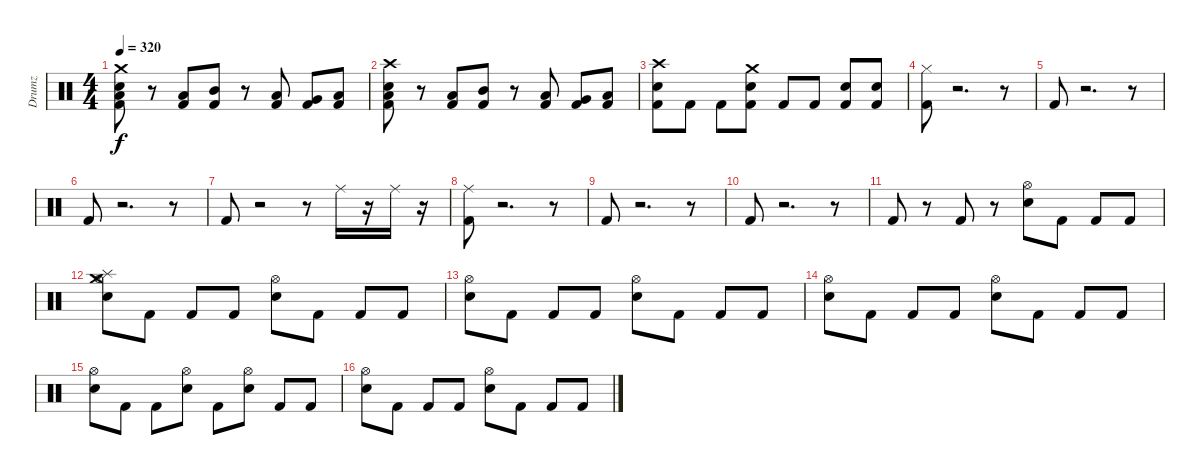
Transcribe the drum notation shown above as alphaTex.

\track ("Drumz" "Drumz") {instrument percussion}
\staff {score}
\articulation defaults
\ts (4 4)
\tempo 320
\clef neutral
\ks c
("Crash medium (hit)" "Snare (hit) 2" "Kick (hit) 2" "Low Tom (hit)").8{dy f} r.8 ("Kick (hit) 2" "Low Tom (hit)").8 ("Kick (hit) 2" "Mid Tom (hit)").8 r.8 ("Kick (hit) 2" "Low Tom (hit)").8 ("Kick (hit) 2" "Very Low Tom (hit)").8 ("Low Floor Tom (hit)" "Kick (hit) 2").8 |
("Crash high (hit)" "Snare (hit) 2" "Kick (hit) 2" "Low Tom (hit)").8 r.8 ("Kick (hit) 2" "Low Tom (hit)").8 ("Kick (hit) 2" "Mid Tom (hit)").8 r.8 ("Kick (hit) 2" "Low Tom (hit)").8 ("Kick (hit) 2" "Very Low Tom (hit)").8 ("Low Floor Tom (hit)" "Kick (hit) 2").8 |
("Crash high (hit)" "Snare (hit) 2" "Kick (hit) 2").8 "Kick (hit) 2".8 "Kick (hit) 2".8 ("Crash medium (hit)" "Snare (hit) 2" "Kick (hit) 2").8 "Kick (hit) 2".8 "Kick (hit) 2".8 ("Snare (hit) 2" "Kick (hit) 2").8 ("Snare (hit) 2" "Kick (hit) 2").8 |
("Kick (hit) 2" "Hi-Hat (closed)").8 r.2{d} r.8 |
"Kick (hit) 2".8 r.2{d} r.8 |
"Kick (hit) 2".8 r.2{d} r.8 |
"Kick (hit) 2".8 r.2 r.8 "Ride (middle)".16 r.16 "Ride (middle)".16 r.16 |
("Kick (hit) 2" "Ride (middle)").8 r.2{d} r.8 |
"Kick (hit) 2".8 r.2{d} r.8 |
"Kick (hit) 2".8 r.2{d} r.8 |
"Kick (hit) 2".8 r.8 "Kick (hit) 2".8 r.8 ("Snare (hit) 2" "Hi-Hat (open)").8 "Kick (hit) 2".8 "Kick (hit) 2".8 "Kick (hit) 2".8 |
("Snare (hit) 2" "Hi-Hat (open)" "Splash (hit)" "Crash medium (hit)").8 "Kick (hit) 2".8 "Kick (hit) 2".8 "Kick (hit) 2".8 ("Snare (hit) 2" "Hi-Hat (open)").8 "Kick (hit) 2".8 "Kick (hit) 2".8 "Kick (hit) 2".8 |
("Snare (hit) 2" "Hi-Hat (open)").8 "Kick (hit) 2".8 "Kick (hit) 2".8 "Kick (hit) 2".8 ("Snare (hit) 2" "Hi-Hat (open)").8 "Kick (hit) 2".8 "Kick (hit) 2".8 "Kick (hit) 2".8 |
("Hi-Hat (open)" "Snare (hit) 2").8 "Kick (hit) 2".8 "Kick (hit) 2".8 "Kick (hit) 2".8 ("Hi-Hat (open)" "Snare (hit) 2").8 "Kick (hit) 2".8 "Kick (hit) 2".8 "Kick (hit) 2".8 |
("Hi-Hat (open)" "Snare (hit) 2").8 "Kick (hit) 2".8 "Kick (hit) 2".8 ("Hi-Hat (open)" "Snare (hit) 2").8 "Kick (hit) 2".8 ("Hi-Hat (open)" "Snare (hit) 2").8 "Kick (hit) 2".8 "Kick (hit) 2".8 |
("Snare (hit) 2" "Hi-Hat (open)").8 "Kick (hit) 2".8 "Kick (hit) 2".8 "Kick (hit) 2".8 ("Snare (hit) 2" "Hi-Hat (open)").8 "Kick (hit) 2".8 "Kick (hit) 2".8 "Kick (hit) 2".8
